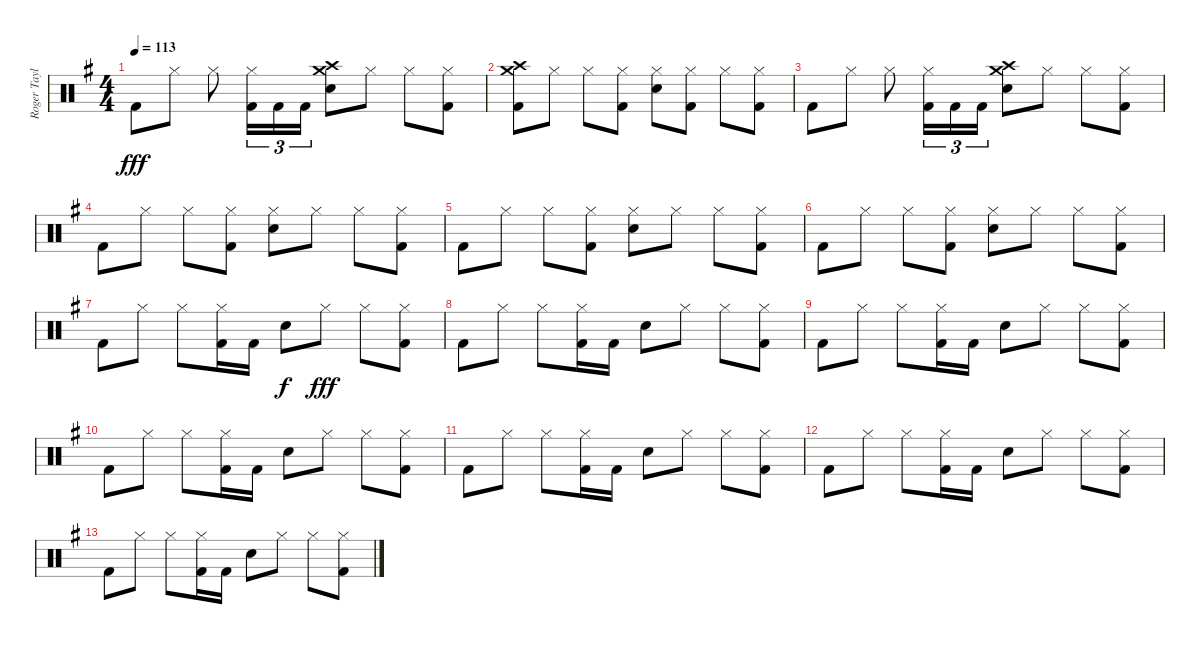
\track ("Roger Taylor" "Roger Tayl") {instrument percussion}
\staff {score}
\articulation defaults
\ts (4 4)
\tempo 113
\clef neutral
\ks g "Kick (hit) 2".8{dy fff} "Hi-Hat (closed)".8 "Hi-Hat (closed)".8
("Kick (hit) 2" "Hi-Hat (closed)").16{tu (3 2)} "Kick (hit) 2".16{tu (3 2)} "Kick (hit) 2".16{tu (3 2)} ("Snare (hit) 2" "Crash high (hit)" "Crash medium (hit)").8 "Hi-Hat (closed)".8 "Hi-Hat (closed)".8 ("Kick (hit) 2" "Hi-Hat (closed)").8 |
("Crash high (hit)" "Crash medium (hit)" "Kick (hit) 2").8 "Hi-Hat (closed)".8 "Hi-Hat (closed)".8 ("Kick (hit) 2" "Hi-Hat (closed)").8 ("Snare (hit) 2" "Hi-Hat (closed)").8 ("Kick (hit) 2" "Hi-Hat (closed)").8 "Hi-Hat (closed)".8 ("Kick (hit) 2" "Hi-Hat (closed)").8 |
"Kick (hit) 2".8 "Hi-Hat (closed)".8 "Hi-Hat (closed)".8 ("Kick (hit) 2" "Hi-Hat (closed)").16{tu (3 2)} "Kick (hit) 2".16{tu (3 2)} "Kick (hit) 2".16{tu (3 2)} ("Snare (hit) 2" "Crash high (hit)" "Crash medium (hit)").8 "Hi-Hat (closed)".8 "Hi-Hat (closed)".8 ("Kick (hit) 2" "Hi-Hat (closed)").8 |
"Kick (hit) 2".8 "Hi-Hat (closed)".8 "Hi-Hat (closed)".8 ("Kick (hit) 2" "Hi-Hat (closed)").8 ("Hi-Hat (closed)" "Snare (hit) 2").8 "Hi-Hat (closed)".8 "Hi-Hat (closed)".8 ("Kick (hit) 2" "Hi-Hat (closed)").8 |
"Kick (hit) 2".8 "Hi-Hat (closed)".8 "Hi-Hat (closed)".8 ("Kick (hit) 2" "Hi-Hat (closed)").8 ("Hi-Hat (closed)" "Snare (hit) 2").8 "Hi-Hat (closed)".8 "Hi-Hat (closed)".8 ("Kick (hit) 2" "Hi-Hat (closed)").8 |
"Kick (hit) 2".8 "Hi-Hat (closed)".8 "Hi-Hat (closed)".8 ("Kick (hit) 2" "Hi-Hat (closed)").8 ("Hi-Hat (closed)" "Snare (hit) 2").8 "Hi-Hat (closed)".8 "Hi-Hat (closed)".8 ("Kick (hit) 2" "Hi-Hat (closed)").8 |
"Kick (hit) 2".8 "Hi-Hat (closed)".8 "Hi-Hat (closed)".8 ("Kick (hit) 2" "Hi-Hat (closed)").16 "Kick (hit) 2".16 "Snare (hit) 2".8{dy f} "Hi-Hat (closed)".8{dy fff} "Hi-Hat (closed)".8 ("Kick (hit) 2" "Hi-Hat (closed)").8 |
"Kick (hit) 2".8 "Hi-Hat (closed)".8 "Hi-Hat (closed)".8 ("Kick (hit) 2" "Hi-Hat (closed)").16 "Kick (hit) 2".16 "Snare (hit) 2".8 "Hi-Hat (closed)".8 "Hi-Hat (closed)".8 ("Kick (hit) 2" "Hi-Hat (closed)").8 |
"Kick (hit) 2".8 "Hi-Hat (closed)".8 "Hi-Hat (closed)".8 ("Kick (hit) 2" "Hi-Hat (closed)").16 "Kick (hit) 2".16 "Snare (hit) 2".8 "Hi-Hat (closed)".8 "Hi-Hat (closed)".8 ("Kick (hit) 2" "Hi-Hat (closed)").8 |
"Kick (hit) 2".8 "Hi-Hat (closed)".8 "Hi-Hat (closed)".8 ("Kick (hit) 2" "Hi-Hat (closed)").16 "Kick (hit) 2".16 "Snare (hit) 2".8 "Hi-Hat (closed)".8 "Hi-Hat (closed)".8 ("Kick (hit) 2" "Hi-Hat (closed)").8 |
"Kick (hit) 2".8{volume 4} "Hi-Hat (closed)".8 "Hi-Hat (closed)".8 ("Kick (hit) 2" "Hi-Hat (closed)").16 "Kick (hit) 2".16 "Snare (hit) 2".8 "Hi-Hat (closed)".8 "Hi-Hat (closed)".8 ("Kick (hit) 2" "Hi-Hat (closed)").8 |
"Kick (hit) 2".8{volume 2} "Hi-Hat (closed)".8 "Hi-Hat (closed)".8 ("Kick (hit) 2" "Hi-Hat (closed)").16 "Kick (hit) 2".16 "Snare (hit) 2".8 "Hi-Hat (closed)".8 "Hi-Hat (closed)".8 ("Kick (hit) 2" "Hi-Hat (closed)").8 |
"Kick (hit) 2".8{volume 1} "Hi-Hat (closed)".8 "Hi-Hat (closed)".8 ("Kick (hit) 2" "Hi-Hat (closed)").16 "Kick (hit) 2".16 "Snare (hit) 2".8 "Hi-Hat (closed)".8 "Hi-Hat (closed)".8 ("Kick (hit) 2" "Hi-Hat (closed)").8
